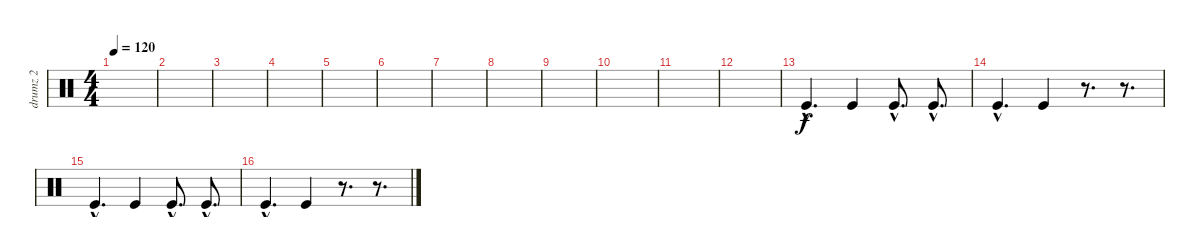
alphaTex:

\track ("drumz 2" "drumz 2") {instrument percussion}
\staff {score}
\articulation defaults
\ts (4 4)
\tempo 120
\clef neutral
\ks c
|
|
|
|
|
|
|
|
|
|
|
|
"Kick (hit)"{hac}.4{d} "Kick (hit)".4 "Kick (hit)"{hac}.8{d} "Kick (hit)"{hac}.8{d} |
"Kick (hit)"{hac}.4{d} "Kick (hit)".4 r.8{d} r.8{d} |
"Kick (hit)"{hac}.4{d} "Kick (hit)".4 "Kick (hit)"{hac}.8{d} "Kick (hit)"{hac}.8{d} |
"Kick (hit)"{hac}.4{d} "Kick (hit)".4 r.8{d} r.8{d}
